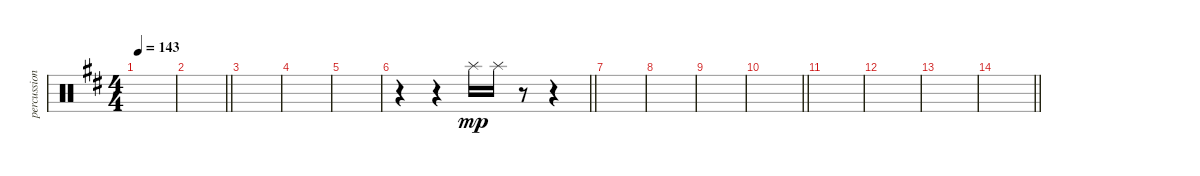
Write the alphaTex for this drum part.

\track ("percussion" "percussion") {instrument percussion}
\staff {score}
\articulation defaults
\ts (4 4)
\tempo 143
\clef neutral
\ks d
|
\barLineRight lightlight
|
|
|
|
\barLineRight lightlight
r.4 r.4 "Splash (hit)".16{dy mp} "Splash (hit)".16 r.8 r.4 |
|
|
|
\barLineRight lightlight
|
|
|
|
\barLineRight lightlight
